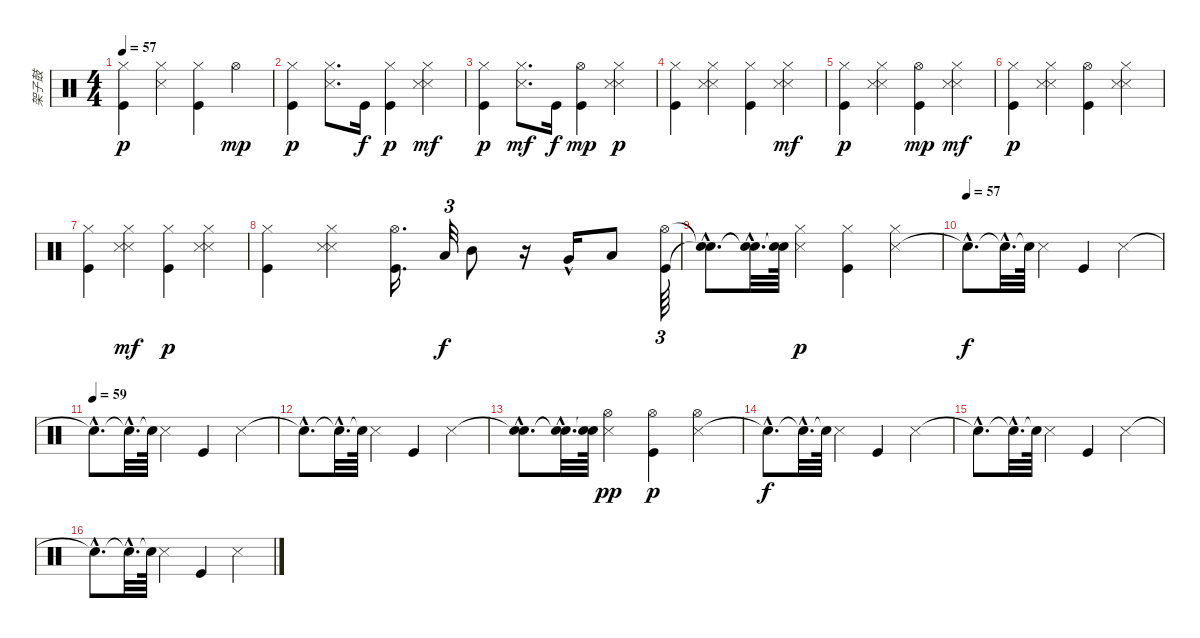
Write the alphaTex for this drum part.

\track ("架子鼓" "架子鼓") {instrument percussion}
\staff {score}
\articulation defaults
\ts (4 4)
\tempo 57
\clef neutral
\ks c
("Hi-Hat (closed)" "Kick (hit)").4{dy p} ("Metronome (hit)" "Hi-Hat (closed)").4 ("Hi-Hat (closed)" "Kick (hit)").4 "Hi-Hat (open)".4{dy mp} |
("Kick (hit)" "Hi-Hat (closed)").4{dy p} ("Metronome (hit)" "Hi-Hat (closed)").8{d} "Kick (hit)".16{dy f} ("Kick (hit)" "Hi-Hat (closed)").4{dy p} ("Hi-Hat (closed)" "Snare (side stick) 3" "Metronome (hit)").4{dy mf} |
("Hi-Hat (closed)" "Kick (hit)").4{dy p} ("Hi-Hat (closed)" "Metronome (hit)").8{d dy mf} "Kick (hit)".16{dy f} ("Hi-Hat (open)" "Kick (hit)").4{dy mp} ("Snare (side stick) 3" "Metronome (hit)" "Hi-Hat (closed)").4{dy p} |
("Hi-Hat (closed)" "Kick (hit)").4 ("Snare (side stick) 3" "Metronome (hit)" "Hi-Hat (closed)").4 ("Kick (hit)" "Hi-Hat (closed)").4 ("Hi-Hat (closed)" "Snare (side stick) 3" "Metronome (hit)").4{dy mf} |
("Kick (hit)" "Hi-Hat (closed)").4{dy p} ("Snare (side stick) 3" "Metronome (hit)" "Hi-Hat (closed)").4 ("Kick (hit)" "Hi-Hat (open)").4{dy mp} ("Hi-Hat (closed)" "Metronome (hit)" "Snare (side stick) 3").4{dy mf} |
("Kick (hit)" "Hi-Hat (closed)").4{dy p} ("Metronome (hit)" "Hi-Hat (closed)" "Snare (side stick) 3").4 ("Kick (hit)" "Hi-Hat (open)").4 ("Snare (side stick) 3" "Metronome (hit)" "Hi-Hat (closed)").4 |
("Kick (hit)" "Hi-Hat (closed)").4 ("Hi-Hat (closed)" "Metronome (hit)" "Snare (side stick) 3").4{dy mf} ("Kick (hit)" "Hi-Hat (closed)").4{dy p} ("Metronome (hit)" "Hi-Hat (closed)" "Snare (side stick) 3").4 |
("Hi-Hat (closed)" "Kick (hit)").4 ("Snare (side stick) 3" "Metronome (hit)" "Hi-Hat (closed)").4 ("Hi-Hat (open)" "Kick (hit)").16{d} "Low Tom (hit)".32{tu (3 2) dy f} "Mid Tom (hit)".8 r.16 "Very Low Tom (hit)"{hac}.16 "Low Floor Tom (hit)".8 ("Kick (hit)" "Hi-Hat (open)").64{tu (3 2)} |
("Snare (hit)"{hac t} "Snare (hit)"{hac t}).8{d} ("Snare (hit)"{hac t} "Snare (hit)"{hac t}).32{d} ("Snare (hit)"{t} "Snare (hit)"{t}).64 ("Metronome (hit)" "Hi-Hat (closed)").4{dy p} ("Kick (hit)" "Hi-Hat (closed)").4 ("Metronome (hit)" "Hi-Hat (closed)").4 |
\tempo (57)
"Snare (hit)"{hac t}.8{d dy f} "Snare (hit)"{hac t}.32{d} "Snare (hit)"{t}.64 "Snare (side stick) 3".4 "Kick (hit)".4 "Snare (side stick) 3".4 |
\tempo (59)
"Snare (hit)"{hac t}.8{d} "Snare (hit)"{hac t}.32{d} "Snare (hit)"{t}.64 "Snare (side stick) 3".4 "Kick (hit)".4 "Snare (side stick) 3".4 |
"Snare (hit)"{hac t}.8{d} "Snare (hit)"{hac t}.32{d} "Snare (hit)"{t}.64 "Snare (side stick) 3".4 "Kick (hit)".4 "Snare (side stick) 3".4 |
("Snare (hit)"{hac t} "Snare (hit)"{hac}).8{d} ("Snare (hit)"{hac t} "Snare (hit)"{hac t}).32{d} ("Snare (hit)"{t} "Snare (hit)"{t}).64 ("Snare (side stick) 3" "Hi-Hat (open)").4{dy pp} ("Hi-Hat (open)" "Kick (hit)").4{dy p} ("Snare (side stick) 3" "Hi-Hat (open)").4 |
"Snare (hit)"{hac t}.8{d dy f} "Snare (hit)"{hac t}.32{d} "Snare (hit)"{t}.64 "Snare (side stick) 3".4 "Kick (hit)".4 "Snare (side stick) 3".4 |
"Snare (hit)"{hac t}.8{d} "Snare (hit)"{hac t}.32{d} "Snare (hit)"{t}.64 "Snare (side stick) 3".4 "Kick (hit)".4 "Snare (side stick) 3".4 |
"Snare (hit)"{hac t}.8{d} "Snare (hit)"{hac t}.32{d} "Snare (hit)"{t}.64 "Snare (side stick) 3".4 "Kick (hit)".4 "Snare (side stick) 3".4
